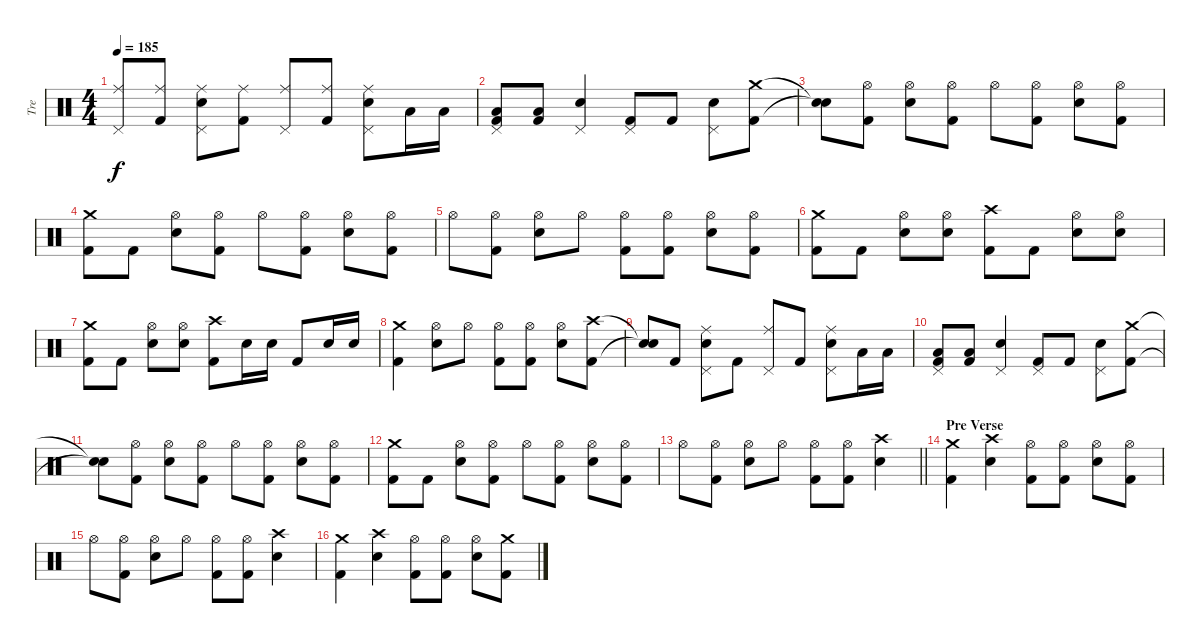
\track ("Tre" "Tre") {instrument percussion}
\staff {score}
\articulation defaults
\ts (4 4)
\tempo 185
\clef neutral
\ks c
("Ride (middle)" "Pedal Hi-Hat (hit)").8{dy f} ("Ride (middle)" "Kick (hit) 2").8 ("Ride (middle)" "Electric Snare (hit)" "Pedal Hi-Hat (hit)").8 ("Ride (middle)" "Kick (hit) 2").8 ("Ride (middle)" "Pedal Hi-Hat (hit)").8 ("Ride (middle)" "Kick (hit) 2").8 ("Ride (middle)" "Electric Snare (hit)" "Pedal Hi-Hat (hit)").8 "Low Floor Tom (hit)".16 "Low Floor Tom (hit)".16 |
("Low Floor Tom (hit)" "Pedal Hi-Hat (hit)" "Kick (hit) 2").8 ("Low Floor Tom (hit)" "Kick (hit) 2").8 ("Electric Snare (hit)" "Pedal Hi-Hat (hit)").4 ("Pedal Hi-Hat (hit)" "Kick (hit) 2").8 "Kick (hit) 2".8 ("Electric Snare (hit)" "Pedal Hi-Hat (hit)").8 ("Crash medium (hit)" "Kick (hit) 2").8 |
("Snare (hit)"{t} "Snare (hit)"{t}).8 ("Hi-Hat (open)" "Kick (hit) 2").8 ("Hi-Hat (open)" "Electric Snare (hit)").8 ("Hi-Hat (open)" "Kick (hit) 2").8 "Hi-Hat (open)".8 ("Hi-Hat (open)" "Kick (hit) 2").8 ("Hi-Hat (open)" "Electric Snare (hit)").8 ("Hi-Hat (open)" "Kick (hit) 2").8 |
("Crash medium (hit)" "Kick (hit) 2").8 "Kick (hit) 2".8 ("Hi-Hat (open)" "Electric Snare (hit)").8 ("Hi-Hat (open)" "Kick (hit) 2").8 "Hi-Hat (open)".8 ("Hi-Hat (open)" "Kick (hit) 2").8 ("Hi-Hat (open)" "Electric Snare (hit)").8 ("Hi-Hat (open)" "Kick (hit) 2").8 |
"Hi-Hat (open)".8 ("Hi-Hat (open)" "Kick (hit) 2").8 ("Hi-Hat (open)" "Electric Snare (hit)").8 "Hi-Hat (open)".8 ("Hi-Hat (open)" "Kick (hit) 2").8 ("Hi-Hat (open)" "Kick (hit) 2").8 ("Hi-Hat (open)" "Electric Snare (hit)").8 ("Hi-Hat (open)" "Kick (hit) 2").8 |
("Crash medium (hit)" "Kick (hit) 2").8 "Kick (hit) 2".8 ("Hi-Hat (open)" "Electric Snare (hit)").8 ("Hi-Hat (open)" "Electric Snare (hit)").8 ("Crash high (hit)" "Kick (hit) 2").8 "Kick (hit) 2".8 ("Hi-Hat (open)" "Electric Snare (hit)").8 ("Hi-Hat (open)" "Electric Snare (hit)").8 |
("Crash medium (hit)" "Kick (hit) 2").8 "Kick (hit) 2".8 ("Hi-Hat (open)" "Electric Snare (hit)").8 ("Hi-Hat (open)" "Electric Snare (hit)").8 ("Crash high (hit)" "Kick (hit) 2").8 "Electric Snare (hit)".16 "Electric Snare (hit)".16 "Kick (hit) 2".8 "Electric Snare (hit)".16 "Electric Snare (hit)".16 |
("Crash medium (hit)" "Kick (hit) 2").4 ("Hi-Hat (open)" "Electric Snare (hit)").8 "Hi-Hat (open)".8 ("Hi-Hat (open)" "Kick (hit) 2").8 ("Hi-Hat (open)" "Kick (hit) 2").8 ("Hi-Hat (open)" "Electric Snare (hit)").8 ("Crash high (hit)" "Kick (hit) 2").8 |
("Snare (hit)"{t} "Snare (hit)"{t}).8 "Kick (hit) 2".8 ("Ride (middle)" "Electric Snare (hit)" "Pedal Hi-Hat (hit)").8 "Kick (hit) 2".8 ("Ride (middle)" "Pedal Hi-Hat (hit)").8 "Kick (hit) 2".8 ("Ride (middle)" "Electric Snare (hit)" "Pedal Hi-Hat (hit)").8 "Low Floor Tom (hit)".16 "Low Floor Tom (hit)".16 |
("Low Floor Tom (hit)" "Pedal Hi-Hat (hit)" "Kick (hit) 2").8 ("Low Floor Tom (hit)" "Kick (hit) 2").8 ("Electric Snare (hit)" "Pedal Hi-Hat (hit)").4 ("Pedal Hi-Hat (hit)" "Kick (hit) 2").8 "Kick (hit) 2".8 ("Electric Snare (hit)" "Pedal Hi-Hat (hit)").8 ("Crash medium (hit)" "Kick (hit) 2").8 |
("Snare (hit)"{t} "Snare (hit)"{t}).8 ("Hi-Hat (open)" "Kick (hit) 2").8 ("Hi-Hat (open)" "Electric Snare (hit)").8 ("Hi-Hat (open)" "Kick (hit) 2").8 "Hi-Hat (open)".8 ("Hi-Hat (open)" "Kick (hit) 2").8 ("Hi-Hat (open)" "Electric Snare (hit)").8 ("Hi-Hat (open)" "Kick (hit) 2").8 |
("Crash medium (hit)" "Kick (hit) 2").8 "Kick (hit) 2".8 ("Hi-Hat (open)" "Electric Snare (hit)").8 ("Hi-Hat (open)" "Kick (hit) 2").8 "Hi-Hat (open)".8 ("Hi-Hat (open)" "Kick (hit) 2").8 ("Hi-Hat (open)" "Electric Snare (hit)").8 ("Hi-Hat (open)" "Kick (hit) 2").8 |
\barLineRight lightlight "Hi-Hat (open)".8
("Hi-Hat (open)" "Kick (hit) 2").8 ("Hi-Hat (open)" "Electric Snare (hit)").8 "Hi-Hat (open)".8 ("Hi-Hat (open)" "Kick (hit) 2").8 ("Hi-Hat (open)" "Kick (hit) 2").8 ("Crash high (hit)" "Electric Snare (hit)").4 |
\section ("" "Pre Verse")
("Crash medium (hit)" "Kick (hit) 2").4 ("Crash high (hit)" "Electric Snare (hit)").4 ("Hi-Hat (open)" "Kick (hit) 2").8 ("Hi-Hat (open)" "Kick (hit) 2").8 ("Hi-Hat (open)" "Electric Snare (hit)").8 ("Hi-Hat (open)" "Kick (hit) 2").8 |
"Hi-Hat (open)".8 ("Hi-Hat (open)" "Kick (hit) 2").8 ("Hi-Hat (open)" "Electric Snare (hit)").8 "Hi-Hat (open)".8 ("Hi-Hat (open)" "Kick (hit) 2").8 ("Hi-Hat (open)" "Kick (hit) 2").8 ("Crash high (hit)" "Electric Snare (hit)").4 |
("Crash medium (hit)" "Kick (hit) 2").4 ("Crash high (hit)" "Electric Snare (hit)").4 ("Hi-Hat (open)" "Kick (hit) 2").8 ("Hi-Hat (open)" "Kick (hit) 2").8 ("Hi-Hat (open)" "Electric Snare (hit)").8 ("Crash medium (hit)" "Kick (hit) 2").8
